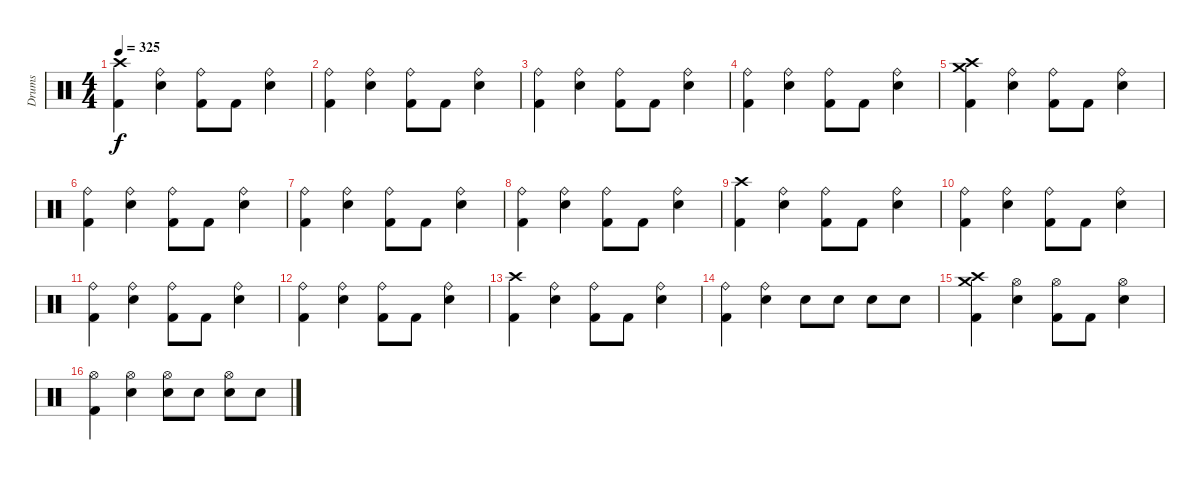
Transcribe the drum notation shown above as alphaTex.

\track ("Drums" "Drums") {instrument percussion}
\staff {score}
\articulation defaults
\ts (4 4)
\tempo 325
\clef neutral
\ks c
("Crash high (hit)" "Kick (hit) 2").4{dy f} ("Electric Snare (hit)" "Ride (bell)").4 ("Kick (hit) 2" "Ride (bell)").8 "Kick (hit) 2".8 ("Electric Snare (hit)" "Ride (bell)").4 |
("Kick (hit) 2" "Ride (bell)").4 ("Electric Snare (hit)" "Ride (bell)").4 ("Kick (hit) 2" "Ride (bell)").8 "Kick (hit) 2".8 ("Electric Snare (hit)" "Ride (bell)").4 |
("Kick (hit) 2" "Ride (bell)").4 ("Electric Snare (hit)" "Ride (bell)").4 ("Kick (hit) 2" "Ride (bell)").8 "Kick (hit) 2".8 ("Electric Snare (hit)" "Ride (bell)").4 |
("Kick (hit) 2" "Ride (bell)").4 ("Electric Snare (hit)" "Ride (bell)").4 ("Kick (hit) 2" "Ride (bell)").8 "Kick (hit) 2".8 ("Electric Snare (hit)" "Ride (bell)").4 |
("Crash high (hit)" "Crash medium (hit)" "Kick (hit) 2").4 ("Electric Snare (hit)" "Ride (bell)").4 ("Kick (hit) 2" "Ride (bell)").8 "Kick (hit) 2".8 ("Electric Snare (hit)" "Ride (bell)").4 |
("Kick (hit) 2" "Ride (bell)").4 ("Electric Snare (hit)" "Ride (bell)").4 ("Kick (hit) 2" "Ride (bell)").8 "Kick (hit) 2".8 ("Electric Snare (hit)" "Ride (bell)").4 |
("Kick (hit) 2" "Ride (bell)").4 ("Electric Snare (hit)" "Ride (bell)").4 ("Kick (hit) 2" "Ride (bell)").8 "Kick (hit) 2".8 ("Electric Snare (hit)" "Ride (bell)").4 |
("Kick (hit) 2" "Ride (bell)").4 ("Electric Snare (hit)" "Ride (bell)").4 ("Kick (hit) 2" "Ride (bell)").8 "Kick (hit) 2".8 ("Electric Snare (hit)" "Ride (bell)").4 |
("Crash high (hit)" "Kick (hit) 2").4 ("Electric Snare (hit)" "Ride (bell)").4 ("Kick (hit) 2" "Ride (bell)").8 "Kick (hit) 2".8 ("Electric Snare (hit)" "Ride (bell)").4 |
("Kick (hit) 2" "Ride (bell)").4 ("Electric Snare (hit)" "Ride (bell)").4 ("Kick (hit) 2" "Ride (bell)").8 "Kick (hit) 2".8 ("Electric Snare (hit)" "Ride (bell)").4 |
("Kick (hit) 2" "Ride (bell)").4 ("Electric Snare (hit)" "Ride (bell)").4 ("Kick (hit) 2" "Ride (bell)").8 "Kick (hit) 2".8 ("Electric Snare (hit)" "Ride (bell)").4 |
("Kick (hit) 2" "Ride (bell)").4 ("Electric Snare (hit)" "Ride (bell)").4 ("Kick (hit) 2" "Ride (bell)").8 "Kick (hit) 2".8 ("Electric Snare (hit)" "Ride (bell)").4 |
("Crash high (hit)" "Kick (hit) 2").4 ("Electric Snare (hit)" "Ride (bell)").4 ("Kick (hit) 2" "Ride (bell)").8 "Kick (hit) 2".8 ("Electric Snare (hit)" "Ride (bell)").4 |
("Kick (hit) 2" "Ride (bell)").4 ("Electric Snare (hit)" "Ride (bell)").4 "Electric Snare (hit)".8 "Electric Snare (hit)".8 "Electric Snare (hit)".8 "Electric Snare (hit)".8 |
("Kick (hit) 2" "Crash medium (hit)" "Crash high (hit)").4 ("Snare (hit) 2" "Hi-Hat (open)").4 ("Kick (hit) 2" "Hi-Hat (open)").8 "Kick (hit) 2".8 ("Snare (hit) 2" "Hi-Hat (open)").4 |
("Kick (hit) 2" "Hi-Hat (open)").4 ("Electric Snare (hit)" "Hi-Hat (open)").4 ("Electric Snare (hit)" "Hi-Hat (open)").8 "Electric Snare (hit)".8 ("Electric Snare (hit)" "Hi-Hat (open)").8 "Electric Snare (hit)".8
